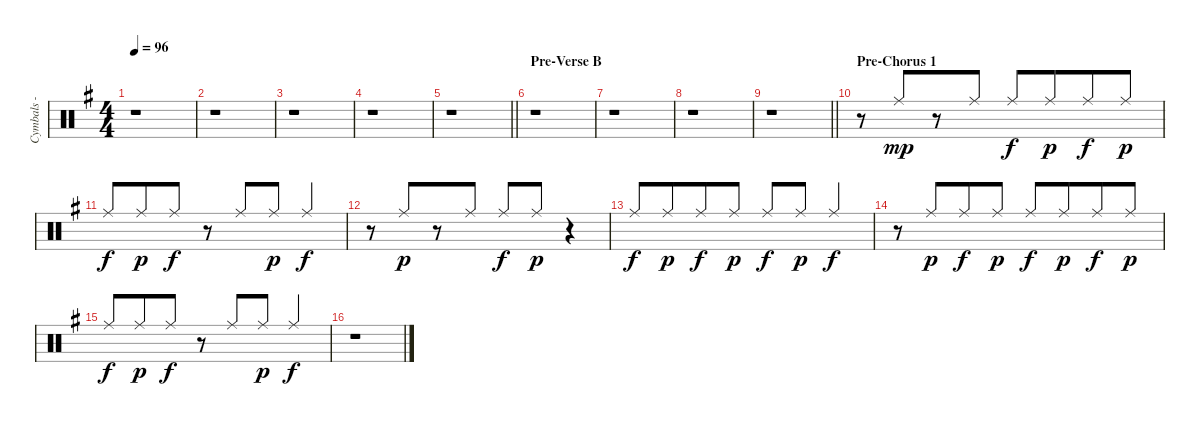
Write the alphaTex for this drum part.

\track ("Cymbals - ride" "Cymbals - ") {instrument percussion}
\staff {score}
\articulation defaults
\ts (4 4)
\tempo 96
\clef neutral
\ks g
r.1{dy mp} |
r.1 |
r.1 |
r.1 |
\barLineRight lightlight
r.1 |
\section ("" "Pre-Verse B")
r.1 |
r.1 |
r.1 |
\barLineRight lightlight
r.1 |
\section ("" "Pre-Chorus 1")
r.8 "Ride (middle)".8{beam Up beam merge} r.8 "Ride (middle)".8{beam Up} "Ride (middle)".8{dy f beam Up} "Ride (middle)".8{dy p beam Up beam merge} "Ride (middle)".8{dy f beam Up} "Ride (middle)".8{dy p beam Up} |
"Ride (middle)".8{dy f beam Up} "Ride (middle)".8{dy p beam Up beam merge} "Ride (middle)".8{dy f beam Up} r.8 "Ride (middle)".8{beam Up} "Ride (middle)".8{dy p beam Up} "Ride (middle)".4{dy f beam Up} |
r.8 "Ride (middle)".8{dy p beam Up beam merge} r.8 "Ride (middle)".8{beam Up} "Ride (middle)".8{dy f beam Up} "Ride (middle)".8{dy p beam Up beam merge} r.4 |
"Ride (middle)".8{dy f beam Up} "Ride (middle)".8{dy p beam Up beam merge} "Ride (middle)".8{dy f beam Up} "Ride (middle)".8{dy p beam Up} "Ride (middle)".8{dy f beam Up} "Ride (middle)".8{dy p beam Up} "Ride (middle)".4{dy f beam Up} |
r.8 "Ride (middle)".8{dy p beam Up beam merge} "Ride (middle)".8{dy f beam Up} "Ride (middle)".8{dy p beam Up} "Ride (middle)".8{dy f beam Up} "Ride (middle)".8{dy p beam Up beam merge} "Ride (middle)".8{dy f beam Up} "Ride (middle)".8{dy p beam Up} |
"Ride (middle)".8{dy f beam Up} "Ride (middle)".8{dy p beam Up beam merge} "Ride (middle)".8{dy f beam Up} r.8 "Ride (middle)".8{beam Up} "Ride (middle)".8{dy p beam Up} "Ride (middle)".4{dy f beam Up} |
r.1
